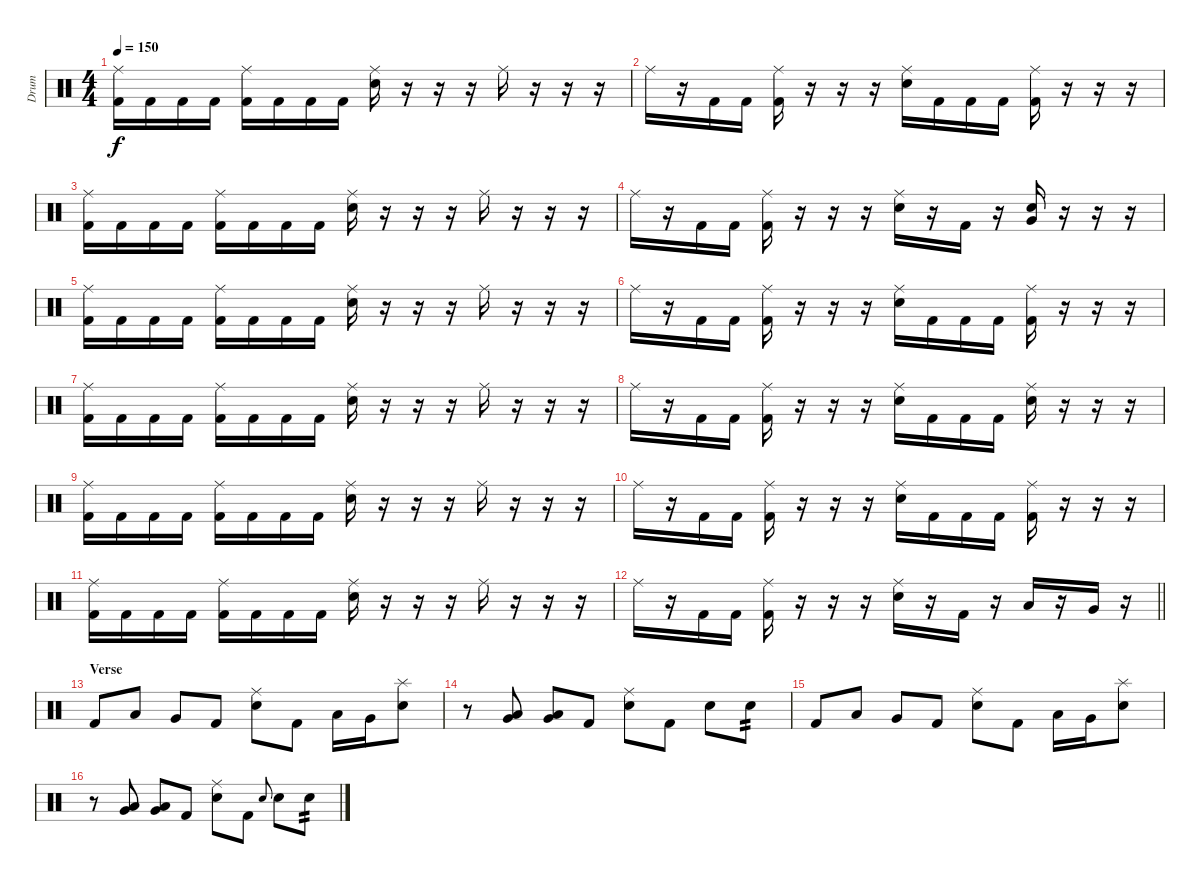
\track ("Drum" "Drum") {instrument percussion}
\staff {score}
\articulation defaults
\ts (4 4)
\tempo 150
\clef neutral
\ks c
("Kick (hit) 2" "Ride (middle)").16{dy f} "Kick (hit) 2".16 "Kick (hit) 2".16 "Kick (hit) 2".16 ("Kick (hit) 2" "Ride (middle)").16 "Kick (hit) 2".16 "Kick (hit) 2".16 "Kick (hit) 2".16 ("Electric Snare (hit)" "Ride (middle)").16 r.16 r.16 r.16 "Ride (middle)".16 r.16 r.16 r.16 |
"Ride (middle)".16 r.16 "Kick (hit) 2".16 "Kick (hit) 2".16 ("Kick (hit) 2" "Ride (middle)").16 r.16 r.16 r.16 ("Electric Snare (hit)" "Ride (middle)").16 "Kick (hit) 2".16 "Kick (hit) 2".16 "Kick (hit) 2".16 ("Kick (hit) 2" "Ride (middle)").16 r.16 r.16 r.16 |
("Kick (hit) 2" "Ride (middle)").16 "Kick (hit) 2".16 "Kick (hit) 2".16 "Kick (hit) 2".16 ("Kick (hit) 2" "Ride (middle)").16 "Kick (hit) 2".16 "Kick (hit) 2".16 "Kick (hit) 2".16 ("Electric Snare (hit)" "Ride (middle)").16 r.16 r.16 r.16 "Ride (middle)".16 r.16 r.16 r.16 |
"Ride (middle)".16 r.16 "Kick (hit) 2".16 "Kick (hit) 2".16 ("Kick (hit) 2" "Ride (middle)").16 r.16 r.16 r.16 ("Electric Snare (hit)" "Ride (middle)").16 r.16 "Kick (hit) 2".16 r.16 ("Electric Snare (hit)" "Very Low Tom (hit)").16 r.16 r.16 r.16 |
("Kick (hit) 2" "Ride (middle)").16 "Kick (hit) 2".16 "Kick (hit) 2".16 "Kick (hit) 2".16 ("Kick (hit) 2" "Ride (middle)").16 "Kick (hit) 2".16 "Kick (hit) 2".16 "Kick (hit) 2".16 ("Electric Snare (hit)" "Ride (middle)").16 r.16 r.16 r.16 "Ride (middle)".16 r.16 r.16 r.16 |
"Ride (middle)".16 r.16 "Kick (hit) 2".16 "Kick (hit) 2".16 ("Kick (hit) 2" "Ride (middle)").16 r.16 r.16 r.16 ("Electric Snare (hit)" "Ride (middle)").16 "Kick (hit) 2".16 "Kick (hit) 2".16 "Kick (hit) 2".16 ("Kick (hit) 2" "Ride (middle)").16 r.16 r.16 r.16 |
("Kick (hit) 2" "Ride (middle)").16 "Kick (hit) 2".16 "Kick (hit) 2".16 "Kick (hit) 2".16 ("Kick (hit) 2" "Ride (middle)").16 "Kick (hit) 2".16 "Kick (hit) 2".16 "Kick (hit) 2".16 ("Electric Snare (hit)" "Ride (middle)").16 r.16 r.16 r.16 "Ride (middle)".16 r.16 r.16 r.16 |
"Ride (middle)".16 r.16 "Kick (hit) 2".16 "Kick (hit) 2".16 ("Kick (hit) 2" "Ride (middle)").16 r.16 r.16 r.16 ("Electric Snare (hit)" "Ride (middle)").16 "Kick (hit) 2".16 "Kick (hit) 2".16 "Kick (hit) 2".16 ("Electric Snare (hit)" "Ride (middle)").16 r.16 r.16 r.16 |
("Kick (hit) 2" "Ride (middle)").16 "Kick (hit) 2".16 "Kick (hit) 2".16 "Kick (hit) 2".16 ("Kick (hit) 2" "Ride (middle)").16 "Kick (hit) 2".16 "Kick (hit) 2".16 "Kick (hit) 2".16 ("Electric Snare (hit)" "Ride (middle)").16 r.16 r.16 r.16 "Ride (middle)".16 r.16 r.16 r.16 |
"Ride (middle)".16 r.16 "Kick (hit) 2".16 "Kick (hit) 2".16 ("Kick (hit) 2" "Ride (middle)").16 r.16 r.16 r.16 ("Electric Snare (hit)" "Ride (middle)").16 "Kick (hit) 2".16 "Kick (hit) 2".16 "Kick (hit) 2".16 ("Kick (hit) 2" "Ride (middle)").16 r.16 r.16 r.16 |
("Kick (hit) 2" "Ride (middle)").16 "Kick (hit) 2".16 "Kick (hit) 2".16 "Kick (hit) 2".16 ("Kick (hit) 2" "Ride (middle)").16 "Kick (hit) 2".16 "Kick (hit) 2".16 "Kick (hit) 2".16 ("Electric Snare (hit)" "Ride (middle)").16 r.16 r.16 r.16 "Ride (middle)".16 r.16 r.16 r.16 |
\barLineRight lightlight "Ride (middle)".16
r.16 "Kick (hit) 2".16 "Kick (hit) 2".16 ("Kick (hit) 2" "Ride (middle)").16 r.16 r.16 r.16 ("Electric Snare (hit)" "Ride (middle)").16 r.16 "Kick (hit) 2".16 r.16 "Low Tom (hit)".16 r.16 "Very Low Tom (hit)".16 r.16 |
\section ("" "Verse")
"Kick (hit) 2".8 "Low Tom (hit)".8 "Very Low Tom (hit)".8 "Kick (hit) 2".8 ("Electric Snare (hit)" "Ride (middle)").8 "Kick (hit) 2".8 "Low Tom (hit)".16 "Very Low Tom (hit)".16 ("Electric Snare (hit)" "Splash (hit)").8 |
r.8 ("Very Low Tom (hit)" "Low Tom (hit)").8 ("Very Low Tom (hit)" "Low Tom (hit)").8 "Kick (hit) 2".8 ("Electric Snare (hit)" "Ride (middle)").8 "Kick (hit) 2".8 "Electric Snare (hit)".8 "Electric Snare (hit)".8{tp 2} |
"Kick (hit) 2".8 "Low Tom (hit)".8 "Very Low Tom (hit)".8 "Kick (hit) 2".8 ("Electric Snare (hit)" "Ride (middle)").8 "Kick (hit) 2".8 "Low Tom (hit)".16 "Very Low Tom (hit)".16 ("Electric Snare (hit)" "Splash (hit)").8 |
r.8 ("Very Low Tom (hit)" "Low Tom (hit)").8 ("Very Low Tom (hit)" "Low Tom (hit)").8 "Kick (hit) 2".8 ("Electric Snare (hit)" "Ride (middle)").8 "Kick (hit) 2".8 "Electric Snare (hit)".8{gr onbeat} "Electric Snare (hit)".8 "Electric Snare (hit)".8{tp 2}
